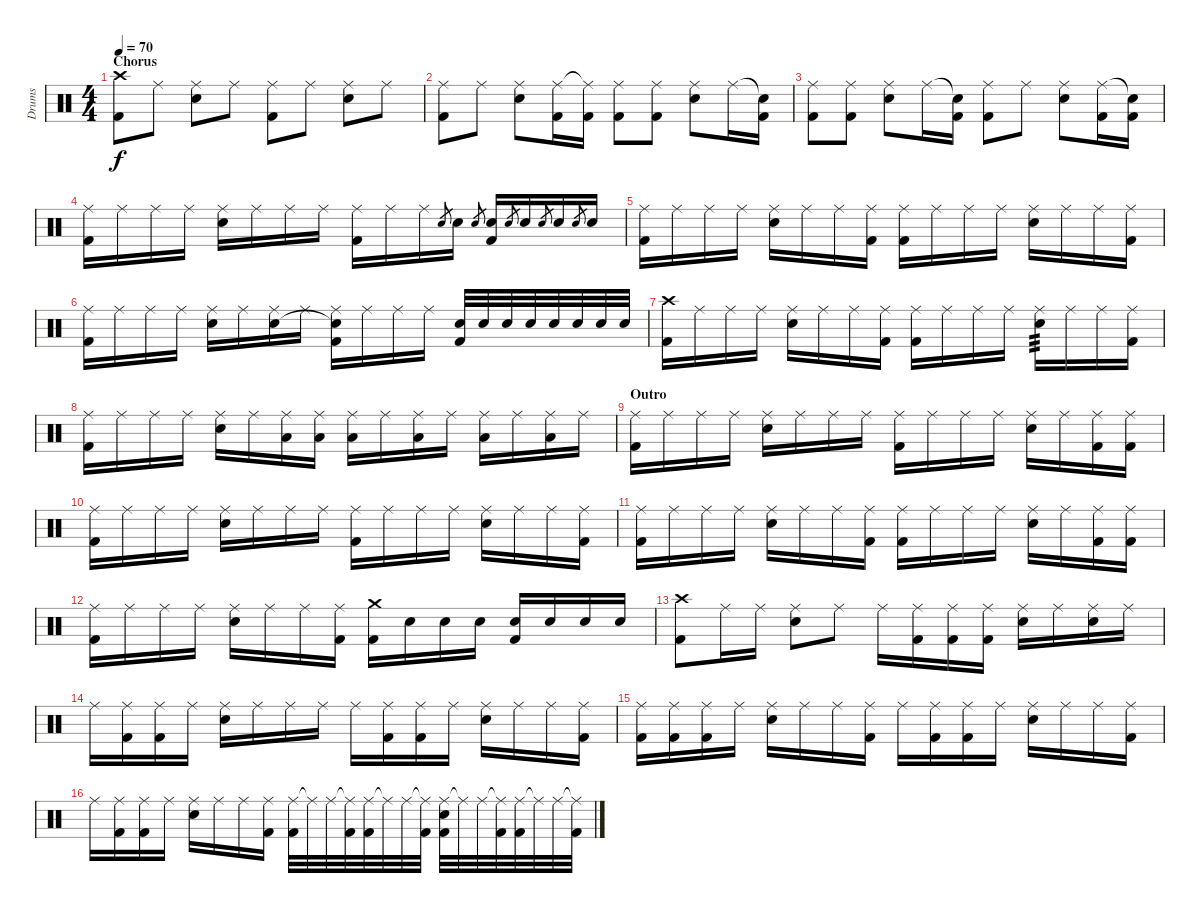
\track ("Drums" "Drums") {instrument percussion}
\staff {score}
\articulation defaults
\ts (4 4)
\section ("" "Chorus")
\tempo 70
\clef neutral
\ks c
("Crash high (hit)" "Kick (hit) 2").8{dy f} "Ride (middle)".8 ("Ride (middle)" "Snare (hit) 2").8 "Ride (middle)".8 ("Ride (middle)" "Kick (hit) 2").8 "Ride (middle)".8 ("Ride (middle)" "Snare (hit) 2").8 "Ride (middle)".8 |
("Ride (middle)" "Kick (hit) 2").8 "Ride (middle)".8 ("Ride (middle)" "Snare (hit) 2").8 ("Ride (middle)" "Kick (hit) 2").16 ("Ride (middle)"{t} "Kick (hit) 2").16 ("Ride (middle)" "Kick (hit) 2").8 ("Ride (middle)" "Kick (hit) 2").8 ("Ride (middle)" "Snare (hit) 2").8 "Ride (middle)".16 ("Snare (hit)"{t} "Kick (hit) 2").16 |
("Ride (middle)" "Kick (hit) 2").8 ("Ride (middle)" "Kick (hit) 2").8 ("Ride (middle)" "Snare (hit) 2").8 "Ride (middle)".16 ("Snare (hit)"{t} "Kick (hit) 2").16 ("Ride (middle)" "Kick (hit) 2").8 "Ride (middle)".8 ("Ride (middle)" "Snare (hit) 2").8 ("Ride (middle)" "Kick (hit) 2").16 ("Snare (hit)"{t} "Kick (hit) 2").16 |
("Ride (middle)" "Kick (hit) 2").16 "Ride (middle)".16 "Ride (middle)".16 "Ride (middle)".16 ("Ride (middle)" "Snare (hit) 2").16 "Ride (middle)".16 "Ride (middle)".16 "Ride (middle)".16 ("Ride (middle)" "Kick (hit) 2").16 "Ride (middle)".16 "Ride (middle)".16 "Snare (hit) 2".8{gr} "Snare (hit) 2".16 "Snare (hit) 2".8{gr} ("Snare (hit) 2" "Kick (hit) 2").16 "Snare (hit) 2".8{gr} "Snare (hit) 2".16 "Snare (hit) 2".8{gr} "Snare (hit) 2".16 "Snare (hit) 2".8{gr} "Snare (hit) 2".16 |
("Ride (middle)" "Kick (hit) 2").16 "Ride (middle)".16 "Ride (middle)".16 "Ride (middle)".16 ("Ride (middle)" "Snare (hit) 2").16 "Ride (middle)".16 "Ride (middle)".16 ("Ride (middle)" "Kick (hit) 2").16 ("Ride (middle)" "Kick (hit) 2").16 "Ride (middle)".16 "Ride (middle)".16 "Ride (middle)".16 ("Ride (middle)" "Snare (hit) 2").16 "Ride (middle)".16 "Ride (middle)".16 ("Ride (middle)" "Kick (hit) 2").16 |
("Ride (middle)" "Kick (hit) 2").16 "Ride (middle)".16 "Ride (middle)".16 "Ride (middle)".16 ("Ride (middle)" "Snare (hit) 2").16 "Ride (middle)".16 ("Ride (middle)" "Snare (hit) 2"{tr (38 64)}).16 "Ride (middle)".16 ("Ride (middle)" "Snare (hit) 2"{t} "Kick (hit) 2").16 "Ride (middle)".16 "Ride (middle)".16 "Ride (middle)".16 ("Snare (hit) 2" "Kick (hit) 2").32 "Snare (hit) 2".32 "Snare (hit) 2".32 "Snare (hit) 2".32 "Snare (hit) 2".32 "Snare (hit) 2".32 "Snare (hit) 2".32 "Snare (hit) 2".32 |
("Crash high (hit)" "Kick (hit) 2").16 "Ride (middle)".16 "Ride (middle)".16 "Ride (middle)".16 ("Ride (middle)" "Snare (hit) 2").16 "Ride (middle)".16 "Ride (middle)".16 ("Ride (middle)" "Kick (hit) 2").16 ("Ride (middle)" "Kick (hit) 2").16 "Ride (middle)".16 "Ride (middle)".16 "Ride (middle)".16 ("Ride (middle)" "Snare (hit) 2").16{tp 3} "Ride (middle)".16 "Ride (middle)".16 ("Ride (middle)" "Kick (hit) 2").16 |
("Ride (middle)" "Kick (hit) 2").16 "Ride (middle)".16 "Ride (middle)".16 "Ride (middle)".16 ("Ride (middle)" "Snare (hit) 2").16 "Ride (middle)".16 ("Ride (middle)" "Low Tom (hit)").16 ("Ride (middle)" "Low Tom (hit)").16 ("Ride (middle)" "Low Tom (hit)").16 "Ride (middle)".16 ("Ride (middle)" "Low Tom (hit)").16 "Ride (middle)".16 ("Ride (middle)" "Low Tom (hit)").16 "Ride (middle)".16 ("Ride (middle)" "Low Tom (hit)").16 "Ride (middle)".16 |
\section ("" "Outro")
("Ride (middle)" "Kick (hit) 2").16 "Ride (middle)".16 "Ride (middle)".16 "Ride (middle)".16 ("Ride (middle)" "Snare (hit) 2").16 "Ride (middle)".16 "Ride (middle)".16 "Ride (middle)".16 ("Ride (middle)" "Kick (hit) 2").16 "Ride (middle)".16 "Ride (middle)".16 "Ride (middle)".16 ("Ride (middle)" "Snare (hit) 2").16 "Ride (middle)".16 ("Ride (middle)" "Kick (hit) 2").16 ("Ride (middle)" "Kick (hit) 2").16 |
("Ride (middle)" "Kick (hit) 2").16 "Ride (middle)".16 "Ride (middle)".16 "Ride (middle)".16 ("Ride (middle)" "Snare (hit) 2").16 "Ride (middle)".16 "Ride (middle)".16 "Ride (middle)".16 ("Ride (middle)" "Kick (hit) 2").16 "Ride (middle)".16 "Ride (middle)".16 "Ride (middle)".16 ("Ride (middle)" "Snare (hit) 2").16 "Ride (middle)".16 "Ride (middle)".16 ("Ride (middle)" "Kick (hit) 2").16 |
("Ride (middle)" "Kick (hit) 2").16 "Ride (middle)".16 "Ride (middle)".16 "Ride (middle)".16 ("Ride (middle)" "Snare (hit) 2").16 "Ride (middle)".16 "Ride (middle)".16 ("Ride (middle)" "Kick (hit) 2").16 ("Ride (middle)" "Kick (hit) 2").16 "Ride (middle)".16 "Ride (middle)".16 "Ride (middle)".16 ("Ride (middle)" "Snare (hit) 2").16 "Ride (middle)".16 ("Ride (middle)" "Kick (hit) 2").16 ("Ride (middle)" "Kick (hit) 2").16 |
("Ride (middle)" "Kick (hit) 2").16 "Ride (middle)".16 "Ride (middle)".16 "Ride (middle)".16 ("Ride (middle)" "Snare (hit) 2").16 "Ride (middle)".16 "Ride (middle)".16 ("Ride (middle)" "Kick (hit) 2").16 ("Crash medium (hit)" "Kick (hit) 2").16 "Snare (hit) 2".16 "Snare (hit) 2".16 "Snare (hit) 2".16 ("Snare (hit) 2" "Kick (hit) 2").16 "Snare (hit) 2".16 "Snare (hit) 2".16 "Snare (hit) 2".16 |
("Crash high (hit)" "Kick (hit) 2").8 "Ride (middle)".16 "Ride (middle)".16 ("Ride (middle)" "Snare (hit) 2").8 "Ride (middle)".8 "Ride (middle)".16 ("Ride (middle)" "Kick (hit) 2").16 ("Ride (middle)" "Kick (hit) 2").16 ("Ride (middle)" "Kick (hit) 2").16 ("Ride (middle)" "Snare (hit) 2").16 "Ride (middle)".16 ("Ride (middle)" "Snare (hit) 2").16 "Ride (middle)".16 |
"Ride (middle)".16 ("Ride (middle)" "Kick (hit) 2").16 ("Ride (middle)" "Kick (hit) 2").16 "Ride (middle)".16 ("Ride (middle)" "Snare (hit) 2").16 "Ride (middle)".16 "Ride (middle)".16 "Ride (middle)".16 "Ride (middle)".16 ("Ride (middle)" "Kick (hit) 2").16 ("Ride (middle)" "Kick (hit) 2").16 "Ride (middle)".16 ("Ride (middle)" "Snare (hit) 2").16 "Ride (middle)".16 "Ride (middle)".16 ("Ride (middle)" "Kick (hit) 2").16 |
("Ride (middle)" "Kick (hit) 2").16 ("Ride (middle)" "Kick (hit) 2").16 ("Ride (middle)" "Kick (hit) 2").16 "Ride (middle)".16 ("Ride (middle)" "Snare (hit) 2").16 "Ride (middle)".16 "Ride (middle)".16 ("Ride (middle)" "Kick (hit) 2").16 "Ride (middle)".16 ("Ride (middle)" "Kick (hit) 2").16 ("Ride (middle)" "Kick (hit) 2").16 "Ride (middle)".16 ("Ride (middle)" "Snare (hit) 2").16 "Ride (middle)".16 "Ride (middle)".16 ("Ride (middle)" "Kick (hit) 2").16 |
"Ride (middle)".16 ("Ride (middle)" "Kick (hit) 2").16 ("Ride (middle)" "Kick (hit) 2").16 "Ride (middle)".16 ("Ride (middle)" "Snare (hit) 2").16 "Ride (middle)".16 "Ride (middle)".16 ("Ride (middle)" "Kick (hit) 2").16 ("Ride (middle)" "Kick (hit) 2").32 "Ride (middle)"{t}.32 "Ride (middle)".32 ("Ride (middle)"{t} "Kick (hit) 2").32 ("Ride (middle)" "Kick (hit) 2").32 "Ride (middle)"{t}.32 "Ride (middle)".32 ("Ride (middle)"{t} "Kick (hit) 2").32 ("Ride (middle)" "Snare (hit) 2" "Kick (hit) 2").32 "Ride (middle)"{t}.32 "Ride (middle)".32 ("Ride (middle)"{t} "Kick (hit) 2").32 ("Ride (middle)" "Kick (hit) 2").32 "Ride (middle)"{t}.32 "Ride (middle)".32 ("Ride (middle)"{t} "Kick (hit) 2").32
